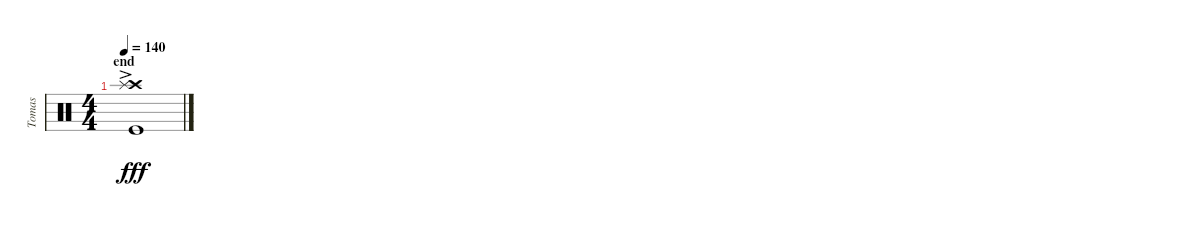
\track ("Tomas" "Tomas") {instrument percussion}
\staff {score}
\articulation defaults
\ts (4 4)
\section ("" "end")
\tempo 140
\clef neutral
\ks c
("Crash high (hit)"{ac} "Splash (hit)"{ac} "Kick (hit)"{ac}).1{dy fff}
